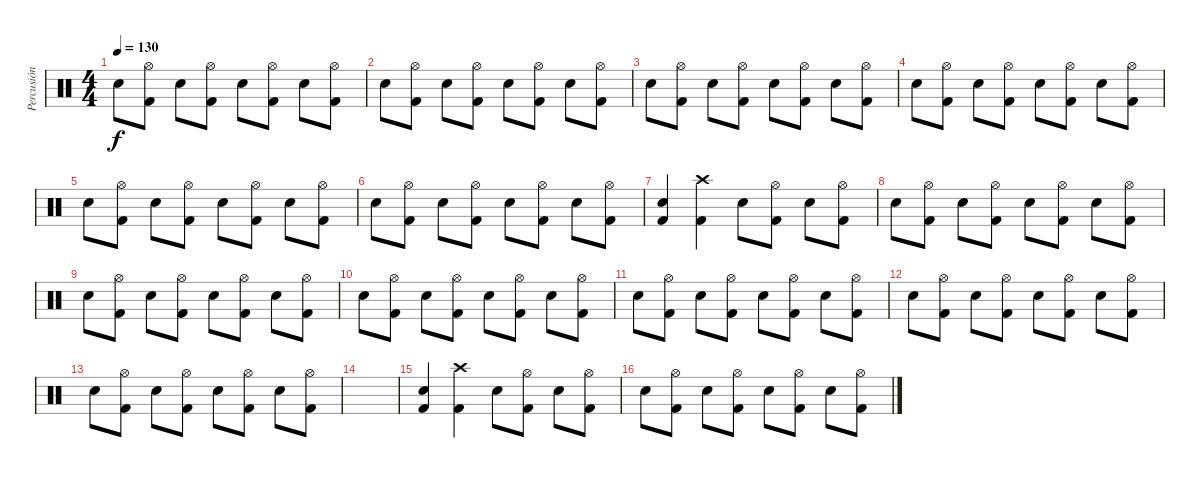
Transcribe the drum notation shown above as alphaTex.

\track ("Percusión" "Percusión") {instrument percussion}
\staff {score}
\articulation defaults
\ts (4 4)
\tempo 130
\clef neutral
\ks c "Snare (hit) 2".8{dy f}
("Hi-Hat (open)" "Kick (hit) 2").8 "Snare (hit) 2".8 ("Hi-Hat (open)" "Kick (hit) 2").8 "Snare (hit) 2".8 ("Hi-Hat (open)" "Kick (hit) 2").8 "Snare (hit) 2".8 ("Hi-Hat (open)" "Kick (hit) 2").8 |
"Snare (hit) 2".8 ("Hi-Hat (open)" "Kick (hit) 2").8 "Snare (hit) 2".8 ("Hi-Hat (open)" "Kick (hit) 2").8 "Snare (hit) 2".8 ("Hi-Hat (open)" "Kick (hit) 2").8 "Snare (hit) 2".8 ("Hi-Hat (open)" "Kick (hit) 2").8 |
"Snare (hit) 2".8 ("Hi-Hat (open)" "Kick (hit) 2").8 "Snare (hit) 2".8 ("Hi-Hat (open)" "Kick (hit) 2").8 "Snare (hit) 2".8 ("Hi-Hat (open)" "Kick (hit) 2").8 "Snare (hit) 2".8 ("Hi-Hat (open)" "Kick (hit) 2").8 |
"Snare (hit) 2".8 ("Hi-Hat (open)" "Kick (hit) 2").8 "Snare (hit) 2".8 ("Hi-Hat (open)" "Kick (hit) 2").8 "Snare (hit) 2".8 ("Hi-Hat (open)" "Kick (hit) 2").8 "Snare (hit) 2".8 ("Hi-Hat (open)" "Kick (hit) 2").8 |
"Snare (hit) 2".8 ("Hi-Hat (open)" "Kick (hit) 2").8 "Snare (hit) 2".8 ("Hi-Hat (open)" "Kick (hit) 2").8 "Snare (hit) 2".8 ("Hi-Hat (open)" "Kick (hit) 2").8 "Snare (hit) 2".8 ("Hi-Hat (open)" "Kick (hit) 2").8 |
"Snare (hit) 2".8 ("Hi-Hat (open)" "Kick (hit) 2").8 "Snare (hit) 2".8 ("Hi-Hat (open)" "Kick (hit) 2").8 "Snare (hit) 2".8 ("Hi-Hat (open)" "Kick (hit) 2").8 "Snare (hit) 2".8 ("Hi-Hat (open)" "Kick (hit) 2").8 |
("Snare (hit) 2" "Kick (hit) 2").4 ("Crash high (hit)" "Kick (hit) 2").4 "Snare (hit) 2".8 ("Hi-Hat (open)" "Kick (hit) 2").8 "Snare (hit) 2".8 ("Hi-Hat (open)" "Kick (hit) 2").8 |
"Snare (hit) 2".8 ("Hi-Hat (open)" "Kick (hit) 2").8 "Snare (hit) 2".8 ("Hi-Hat (open)" "Kick (hit) 2").8 "Snare (hit) 2".8 ("Hi-Hat (open)" "Kick (hit) 2").8 "Snare (hit) 2".8 ("Hi-Hat (open)" "Kick (hit) 2").8 |
"Snare (hit) 2".8 ("Hi-Hat (open)" "Kick (hit) 2").8 "Snare (hit) 2".8 ("Hi-Hat (open)" "Kick (hit) 2").8 "Snare (hit) 2".8 ("Hi-Hat (open)" "Kick (hit) 2").8 "Snare (hit) 2".8 ("Hi-Hat (open)" "Kick (hit) 2").8 |
"Snare (hit) 2".8 ("Hi-Hat (open)" "Kick (hit) 2").8 "Snare (hit) 2".8 ("Hi-Hat (open)" "Kick (hit) 2").8 "Snare (hit) 2".8 ("Hi-Hat (open)" "Kick (hit) 2").8 "Snare (hit) 2".8 ("Hi-Hat (open)" "Kick (hit) 2").8 |
"Snare (hit) 2".8 ("Hi-Hat (open)" "Kick (hit) 2").8 "Snare (hit) 2".8 ("Hi-Hat (open)" "Kick (hit) 2").8 "Snare (hit) 2".8 ("Hi-Hat (open)" "Kick (hit) 2").8 "Snare (hit) 2".8 ("Hi-Hat (open)" "Kick (hit) 2").8 |
"Snare (hit) 2".8 ("Hi-Hat (open)" "Kick (hit) 2").8 "Snare (hit) 2".8 ("Hi-Hat (open)" "Kick (hit) 2").8 "Snare (hit) 2".8 ("Hi-Hat (open)" "Kick (hit) 2").8 "Snare (hit) 2".8 ("Hi-Hat (open)" "Kick (hit) 2").8 |
"Snare (hit) 2".8 ("Hi-Hat (open)" "Kick (hit) 2").8 "Snare (hit) 2".8 ("Hi-Hat (open)" "Kick (hit) 2").8 "Snare (hit) 2".8 ("Hi-Hat (open)" "Kick (hit) 2").8 "Snare (hit) 2".8 ("Hi-Hat (open)" "Kick (hit) 2").8 |
|
("Snare (hit) 2" "Kick (hit) 2").4 ("Crash high (hit)" "Kick (hit) 2").4 "Snare (hit) 2".8 ("Hi-Hat (open)" "Kick (hit) 2").8 "Snare (hit) 2".8 ("Hi-Hat (open)" "Kick (hit) 2").8 |
"Snare (hit) 2".8 ("Hi-Hat (open)" "Kick (hit) 2").8 "Snare (hit) 2".8 ("Hi-Hat (open)" "Kick (hit) 2").8 "Snare (hit) 2".8 ("Hi-Hat (open)" "Kick (hit) 2").8 "Snare (hit) 2".8 ("Hi-Hat (open)" "Kick (hit) 2").8
